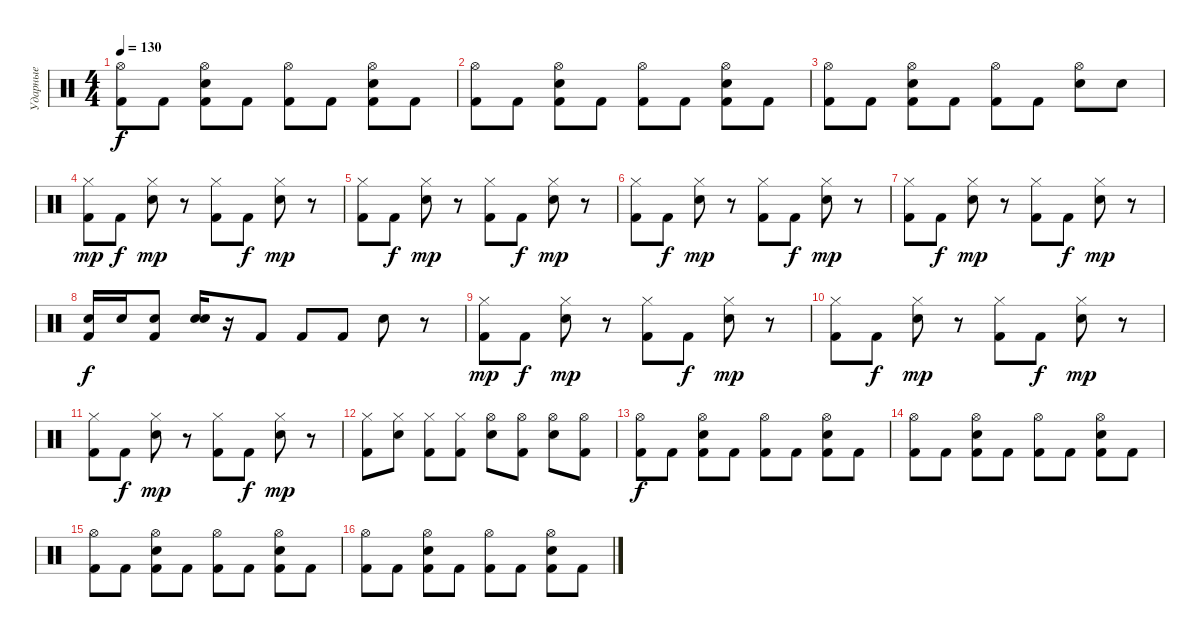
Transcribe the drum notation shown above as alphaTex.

\track ("Ударные" "Ударные") {instrument percussion}
\staff {score}
\articulation defaults
\ts (4 4)
\tempo 130
\clef neutral
\ks c
("Hi-Hat (open)" "Kick (hit) 2").8{dy f} "Kick (hit) 2".8 ("Hi-Hat (open)" "Kick (hit) 2" "Electric Snare (hit)").8 "Kick (hit) 2".8 ("Hi-Hat (open)" "Kick (hit) 2").8 "Kick (hit) 2".8 ("Hi-Hat (open)" "Kick (hit) 2" "Electric Snare (hit)").8 "Kick (hit) 2".8 |
("Hi-Hat (open)" "Kick (hit) 2").8 "Kick (hit) 2".8 ("Hi-Hat (open)" "Kick (hit) 2" "Electric Snare (hit)").8 "Kick (hit) 2".8 ("Hi-Hat (open)" "Kick (hit) 2").8 "Kick (hit) 2".8 ("Hi-Hat (open)" "Kick (hit) 2" "Electric Snare (hit)").8 "Kick (hit) 2".8 |
("Hi-Hat (open)" "Kick (hit) 2").8 "Kick (hit) 2".8 ("Hi-Hat (open)" "Kick (hit) 2" "Electric Snare (hit)").8 "Kick (hit) 2".8 ("Hi-Hat (open)" "Kick (hit) 2").8 "Kick (hit) 2".8 ("Hi-Hat (open)" "Electric Snare (hit)").8 "Electric Snare (hit)".8 |
("Hi-Hat (closed)" "Kick (hit) 2").8{dy mp} "Kick (hit) 2".8{dy f} ("Hi-Hat (closed)" "Electric Snare (hit)").8{dy mp} r.8 ("Hi-Hat (closed)" "Kick (hit) 2").8 "Kick (hit) 2".8{dy f} ("Hi-Hat (closed)" "Electric Snare (hit)").8{dy mp} r.8 |
("Hi-Hat (closed)" "Kick (hit) 2").8 "Kick (hit) 2".8{dy f} ("Hi-Hat (closed)" "Electric Snare (hit)").8{dy mp} r.8 ("Hi-Hat (closed)" "Kick (hit) 2").8 "Kick (hit) 2".8{dy f} ("Hi-Hat (closed)" "Electric Snare (hit)").8{dy mp} r.8 |
("Hi-Hat (closed)" "Kick (hit) 2").8 "Kick (hit) 2".8{dy f} ("Hi-Hat (closed)" "Electric Snare (hit)").8{dy mp} r.8 ("Hi-Hat (closed)" "Kick (hit) 2").8 "Kick (hit) 2".8{dy f} ("Hi-Hat (closed)" "Electric Snare (hit)").8{dy mp} r.8 |
("Hi-Hat (closed)" "Kick (hit) 2").8 "Kick (hit) 2".8{dy f} ("Hi-Hat (closed)" "Electric Snare (hit)").8{dy mp} r.8 ("Hi-Hat (closed)" "Kick (hit) 2").8 "Kick (hit) 2".8{dy f} ("Hi-Hat (closed)" "Electric Snare (hit)").8{dy mp} r.8 |
("Electric Snare (hit)" "Kick (hit) 2").16{dy f} "Electric Snare (hit)".16 ("Electric Snare (hit)" "Kick (hit) 2").8 ("Electric Snare (hit)" "Electric Snare (hit)").16 r.16 "Kick (hit) 2".8 "Kick (hit) 2".8 "Kick (hit) 2".8 "Electric Snare (hit)".8 r.8 |
("Hi-Hat (closed)" "Kick (hit) 2").8{dy mp} "Kick (hit) 2".8{dy f} ("Hi-Hat (closed)" "Electric Snare (hit)").8{dy mp} r.8 ("Hi-Hat (closed)" "Kick (hit) 2").8 "Kick (hit) 2".8{dy f} ("Hi-Hat (closed)" "Electric Snare (hit)").8{dy mp} r.8 |
("Hi-Hat (closed)" "Kick (hit) 2").8 "Kick (hit) 2".8{dy f} ("Hi-Hat (closed)" "Electric Snare (hit)").8{dy mp} r.8 ("Hi-Hat (closed)" "Kick (hit) 2").8 "Kick (hit) 2".8{dy f} ("Hi-Hat (closed)" "Electric Snare (hit)").8{dy mp} r.8 |
("Hi-Hat (closed)" "Kick (hit) 2").8 "Kick (hit) 2".8{dy f} ("Hi-Hat (closed)" "Electric Snare (hit)").8{dy mp} r.8 ("Hi-Hat (closed)" "Kick (hit) 2").8 "Kick (hit) 2".8{dy f} ("Hi-Hat (closed)" "Electric Snare (hit)").8{dy mp} r.8 |
("Hi-Hat (closed)" "Kick (hit) 2").8 ("Hi-Hat (closed)" "Electric Snare (hit)").8 ("Hi-Hat (closed)" "Kick (hit) 2").8 ("Hi-Hat (closed)" "Kick (hit) 2").8 ("Hi-Hat (open)" "Electric Snare (hit)").8 ("Hi-Hat (open)" "Kick (hit) 2").8 ("Hi-Hat (open)" "Electric Snare (hit)").8 ("Hi-Hat (open)" "Kick (hit) 2").8 |
("Hi-Hat (open)" "Kick (hit) 2").8{dy f} "Kick (hit) 2".8 ("Hi-Hat (open)" "Kick (hit) 2" "Electric Snare (hit)").8 "Kick (hit) 2".8 ("Hi-Hat (open)" "Kick (hit) 2").8 "Kick (hit) 2".8 ("Hi-Hat (open)" "Kick (hit) 2" "Electric Snare (hit)").8 "Kick (hit) 2".8 |
("Hi-Hat (open)" "Kick (hit) 2").8 "Kick (hit) 2".8 ("Hi-Hat (open)" "Kick (hit) 2" "Electric Snare (hit)").8 "Kick (hit) 2".8 ("Hi-Hat (open)" "Kick (hit) 2").8 "Kick (hit) 2".8 ("Hi-Hat (open)" "Kick (hit) 2" "Electric Snare (hit)").8 "Kick (hit) 2".8 |
("Hi-Hat (open)" "Kick (hit) 2").8 "Kick (hit) 2".8 ("Hi-Hat (open)" "Kick (hit) 2" "Electric Snare (hit)").8 "Kick (hit) 2".8 ("Hi-Hat (open)" "Kick (hit) 2").8 "Kick (hit) 2".8 ("Hi-Hat (open)" "Kick (hit) 2" "Electric Snare (hit)").8 "Kick (hit) 2".8 |
("Hi-Hat (open)" "Kick (hit) 2").8 "Kick (hit) 2".8 ("Hi-Hat (open)" "Kick (hit) 2" "Electric Snare (hit)").8 "Kick (hit) 2".8 ("Hi-Hat (open)" "Kick (hit) 2").8 "Kick (hit) 2".8 ("Hi-Hat (open)" "Kick (hit) 2" "Electric Snare (hit)").8 "Kick (hit) 2".8
